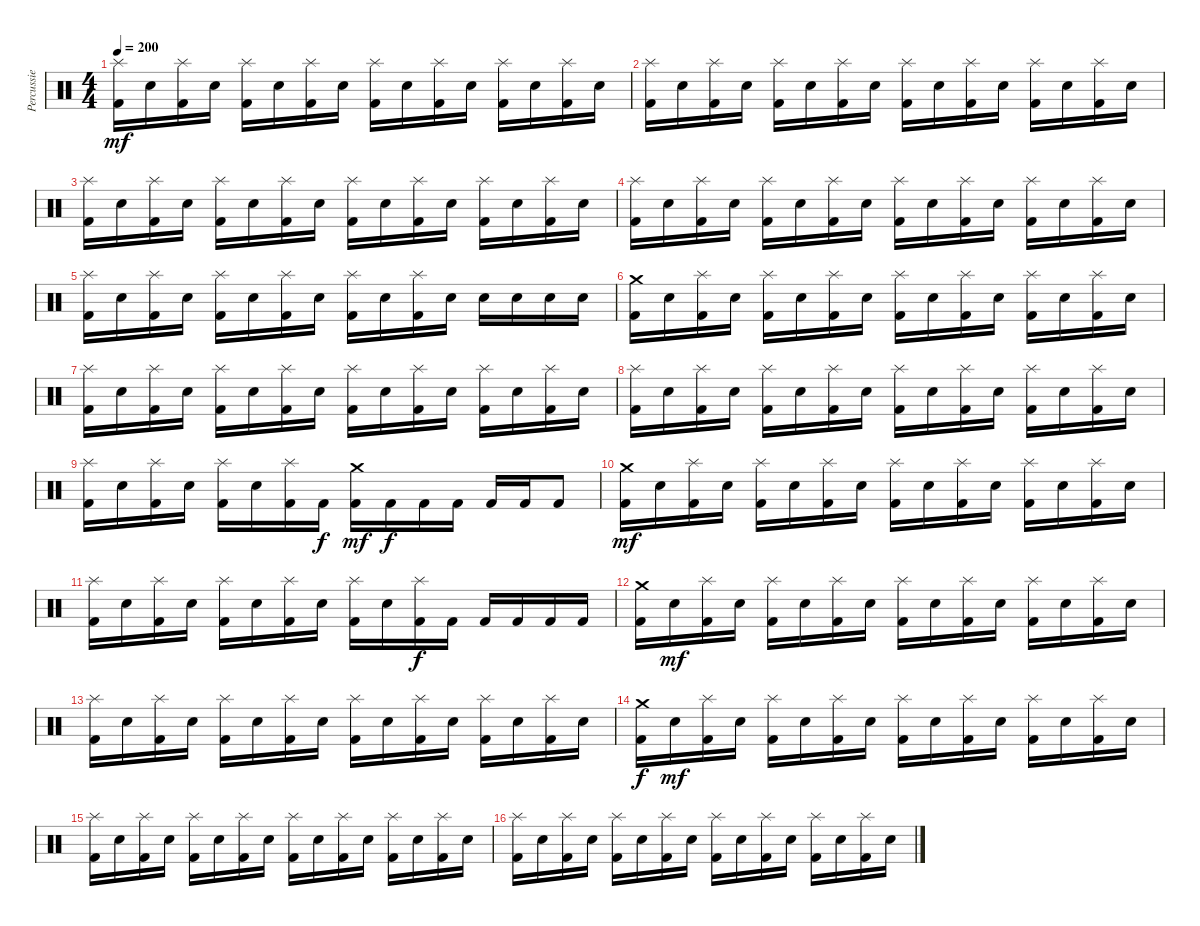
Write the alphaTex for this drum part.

\track ("Percussie" "Percussie") {instrument percussion}
\staff {score}
\articulation defaults
\ts (4 4)
\tempo 200
\clef neutral
\ks c
("Splash (hit)" "Kick (hit) 2").16{dy mf} "Electric Snare (hit)".16 ("Splash (hit)" "Kick (hit) 2").16 "Electric Snare (hit)".16 ("Splash (hit)" "Kick (hit) 2").16 "Electric Snare (hit)".16 ("Splash (hit)" "Kick (hit) 2").16 "Electric Snare (hit)".16 ("Splash (hit)" "Kick (hit) 2").16 "Electric Snare (hit)".16 ("Splash (hit)" "Kick (hit) 2").16 "Electric Snare (hit)".16 ("Splash (hit)" "Kick (hit) 2").16 "Electric Snare (hit)".16 ("Splash (hit)" "Kick (hit) 2").16 "Electric Snare (hit)".16 |
("Splash (hit)" "Kick (hit) 2").16 "Electric Snare (hit)".16 ("Splash (hit)" "Kick (hit) 2").16 "Electric Snare (hit)".16 ("Splash (hit)" "Kick (hit) 2").16 "Electric Snare (hit)".16 ("Splash (hit)" "Kick (hit) 2").16 "Electric Snare (hit)".16 ("Splash (hit)" "Kick (hit) 2").16 "Electric Snare (hit)".16 ("Splash (hit)" "Kick (hit) 2").16 "Electric Snare (hit)".16 ("Splash (hit)" "Kick (hit) 2").16 "Electric Snare (hit)".16 ("Splash (hit)" "Kick (hit) 2").16 "Electric Snare (hit)".16 |
("Splash (hit)" "Kick (hit) 2").16 "Electric Snare (hit)".16 ("Splash (hit)" "Kick (hit) 2").16 "Electric Snare (hit)".16 ("Splash (hit)" "Kick (hit) 2").16 "Electric Snare (hit)".16 ("Splash (hit)" "Kick (hit) 2").16 "Electric Snare (hit)".16 ("Splash (hit)" "Kick (hit) 2").16 "Electric Snare (hit)".16 ("Splash (hit)" "Kick (hit) 2").16 "Electric Snare (hit)".16 ("Splash (hit)" "Kick (hit) 2").16 "Electric Snare (hit)".16 ("Splash (hit)" "Kick (hit) 2").16 "Electric Snare (hit)".16 |
("Splash (hit)" "Kick (hit) 2").16 "Electric Snare (hit)".16 ("Splash (hit)" "Kick (hit) 2").16 "Electric Snare (hit)".16 ("Splash (hit)" "Kick (hit) 2").16 "Electric Snare (hit)".16 ("Splash (hit)" "Kick (hit) 2").16 "Electric Snare (hit)".16 ("Splash (hit)" "Kick (hit) 2").16 "Electric Snare (hit)".16 ("Splash (hit)" "Kick (hit) 2").16 "Electric Snare (hit)".16 ("Splash (hit)" "Kick (hit) 2").16 "Electric Snare (hit)".16 ("Splash (hit)" "Kick (hit) 2").16 "Electric Snare (hit)".16 |
("Splash (hit)" "Kick (hit) 2").16 "Electric Snare (hit)".16 ("Splash (hit)" "Kick (hit) 2").16 "Electric Snare (hit)".16 ("Splash (hit)" "Kick (hit) 2").16 "Electric Snare (hit)".16 ("Splash (hit)" "Kick (hit) 2").16 "Electric Snare (hit)".16 ("Splash (hit)" "Kick (hit) 2").16 "Electric Snare (hit)".16 ("Splash (hit)" "Kick (hit) 2").16 "Electric Snare (hit)".16 "Electric Snare (hit)".16 "Electric Snare (hit)".16 "Electric Snare (hit)".16 "Electric Snare (hit)".16 |
("Crash medium (hit)" "Kick (hit) 2").16 "Electric Snare (hit)".16 ("Splash (hit)" "Kick (hit) 2").16 "Electric Snare (hit)".16 ("Splash (hit)" "Kick (hit) 2").16 "Electric Snare (hit)".16 ("Splash (hit)" "Kick (hit) 2").16 "Electric Snare (hit)".16 ("Splash (hit)" "Kick (hit) 2").16 "Electric Snare (hit)".16 ("Splash (hit)" "Kick (hit) 2").16 "Electric Snare (hit)".16 ("Splash (hit)" "Kick (hit) 2").16 "Electric Snare (hit)".16 ("Splash (hit)" "Kick (hit) 2").16 "Electric Snare (hit)".16 |
("Splash (hit)" "Kick (hit) 2").16 "Electric Snare (hit)".16 ("Splash (hit)" "Kick (hit) 2").16 "Electric Snare (hit)".16 ("Splash (hit)" "Kick (hit) 2").16 "Electric Snare (hit)".16 ("Splash (hit)" "Kick (hit) 2").16 "Electric Snare (hit)".16 ("Splash (hit)" "Kick (hit) 2").16 "Electric Snare (hit)".16 ("Splash (hit)" "Kick (hit) 2").16 "Electric Snare (hit)".16 ("Splash (hit)" "Kick (hit) 2").16 "Electric Snare (hit)".16 ("Splash (hit)" "Kick (hit) 2").16 "Electric Snare (hit)".16 |
("Splash (hit)" "Kick (hit) 2").16 "Electric Snare (hit)".16 ("Splash (hit)" "Kick (hit) 2").16 "Electric Snare (hit)".16 ("Splash (hit)" "Kick (hit) 2").16 "Electric Snare (hit)".16 ("Splash (hit)" "Kick (hit) 2").16 "Electric Snare (hit)".16 ("Splash (hit)" "Kick (hit) 2").16 "Electric Snare (hit)".16 ("Splash (hit)" "Kick (hit) 2").16 "Electric Snare (hit)".16 ("Splash (hit)" "Kick (hit) 2").16 "Electric Snare (hit)".16 ("Splash (hit)" "Kick (hit) 2").16 "Electric Snare (hit)".16 |
("Splash (hit)" "Kick (hit) 2").16 "Electric Snare (hit)".16 ("Splash (hit)" "Kick (hit) 2").16 "Electric Snare (hit)".16 ("Splash (hit)" "Kick (hit) 2").16 "Electric Snare (hit)".16 ("Splash (hit)" "Kick (hit) 2").16 "Kick (hit) 2".16{dy f} ("Crash medium (hit)" "Kick (hit) 2").16{dy mf} "Kick (hit) 2".16{dy f} "Kick (hit) 2".16 "Kick (hit) 2".16 "Kick (hit) 2".16 "Kick (hit) 2".16 "Kick (hit) 2".8 |
("Crash medium (hit)" "Kick (hit) 2").16{dy mf} "Electric Snare (hit)".16 ("Splash (hit)" "Kick (hit) 2").16 "Electric Snare (hit)".16 ("Splash (hit)" "Kick (hit) 2").16 "Electric Snare (hit)".16 ("Splash (hit)" "Kick (hit) 2").16 "Electric Snare (hit)".16 ("Splash (hit)" "Kick (hit) 2").16 "Electric Snare (hit)".16 ("Splash (hit)" "Kick (hit) 2").16 "Electric Snare (hit)".16 ("Splash (hit)" "Kick (hit) 2").16 "Electric Snare (hit)".16 ("Splash (hit)" "Kick (hit) 2").16 "Electric Snare (hit)".16 |
("Splash (hit)" "Kick (hit) 2").16 "Electric Snare (hit)".16 ("Splash (hit)" "Kick (hit) 2").16 "Electric Snare (hit)".16 ("Splash (hit)" "Kick (hit) 2").16 "Electric Snare (hit)".16 ("Splash (hit)" "Kick (hit) 2").16 "Electric Snare (hit)".16 ("Splash (hit)" "Kick (hit) 2").16 "Electric Snare (hit)".16 ("Splash (hit)" "Kick (hit) 2").16{dy f} "Kick (hit) 2".16 "Kick (hit) 2".16 "Kick (hit) 2".16 "Kick (hit) 2".16 "Kick (hit) 2".16 |
("Crash medium (hit)" "Kick (hit) 2").16 "Electric Snare (hit)".16{dy mf} ("Splash (hit)" "Kick (hit) 2").16 "Electric Snare (hit)".16 ("Splash (hit)" "Kick (hit) 2").16 "Electric Snare (hit)".16 ("Splash (hit)" "Kick (hit) 2").16 "Electric Snare (hit)".16 ("Splash (hit)" "Kick (hit) 2").16 "Electric Snare (hit)".16 ("Splash (hit)" "Kick (hit) 2").16 "Electric Snare (hit)".16 ("Splash (hit)" "Kick (hit) 2").16 "Electric Snare (hit)".16 ("Splash (hit)" "Kick (hit) 2").16 "Electric Snare (hit)".16 |
("Splash (hit)" "Kick (hit) 2").16 "Electric Snare (hit)".16 ("Splash (hit)" "Kick (hit) 2").16 "Electric Snare (hit)".16 ("Splash (hit)" "Kick (hit) 2").16 "Electric Snare (hit)".16 ("Splash (hit)" "Kick (hit) 2").16 "Electric Snare (hit)".16 ("Splash (hit)" "Kick (hit) 2").16 "Electric Snare (hit)".16 ("Splash (hit)" "Kick (hit) 2").16 "Electric Snare (hit)".16 ("Splash (hit)" "Kick (hit) 2").16 "Electric Snare (hit)".16 ("Splash (hit)" "Kick (hit) 2").16 "Electric Snare (hit)".16 |
("Crash medium (hit)" "Kick (hit) 2").16{dy f} "Electric Snare (hit)".16{dy mf} ("Splash (hit)" "Kick (hit) 2").16 "Electric Snare (hit)".16 ("Splash (hit)" "Kick (hit) 2").16 "Electric Snare (hit)".16 ("Splash (hit)" "Kick (hit) 2").16 "Electric Snare (hit)".16 ("Splash (hit)" "Kick (hit) 2").16 "Electric Snare (hit)".16 ("Splash (hit)" "Kick (hit) 2").16 "Electric Snare (hit)".16 ("Splash (hit)" "Kick (hit) 2").16 "Electric Snare (hit)".16 ("Splash (hit)" "Kick (hit) 2").16 "Electric Snare (hit)".16 |
("Splash (hit)" "Kick (hit) 2").16 "Electric Snare (hit)".16 ("Splash (hit)" "Kick (hit) 2").16 "Electric Snare (hit)".16 ("Splash (hit)" "Kick (hit) 2").16 "Electric Snare (hit)".16 ("Splash (hit)" "Kick (hit) 2").16 "Electric Snare (hit)".16 ("Splash (hit)" "Kick (hit) 2").16 "Electric Snare (hit)".16 ("Splash (hit)" "Kick (hit) 2").16 "Electric Snare (hit)".16 ("Splash (hit)" "Kick (hit) 2").16 "Electric Snare (hit)".16 ("Splash (hit)" "Kick (hit) 2").16 "Electric Snare (hit)".16 |
("Splash (hit)" "Kick (hit) 2").16 "Electric Snare (hit)".16 ("Splash (hit)" "Kick (hit) 2").16 "Electric Snare (hit)".16 ("Splash (hit)" "Kick (hit) 2").16 "Electric Snare (hit)".16 ("Splash (hit)" "Kick (hit) 2").16 "Electric Snare (hit)".16 ("Splash (hit)" "Kick (hit) 2").16 "Electric Snare (hit)".16 ("Splash (hit)" "Kick (hit) 2").16 "Electric Snare (hit)".16 ("Splash (hit)" "Kick (hit) 2").16 "Electric Snare (hit)".16 ("Splash (hit)" "Kick (hit) 2").16 "Electric Snare (hit)".16
